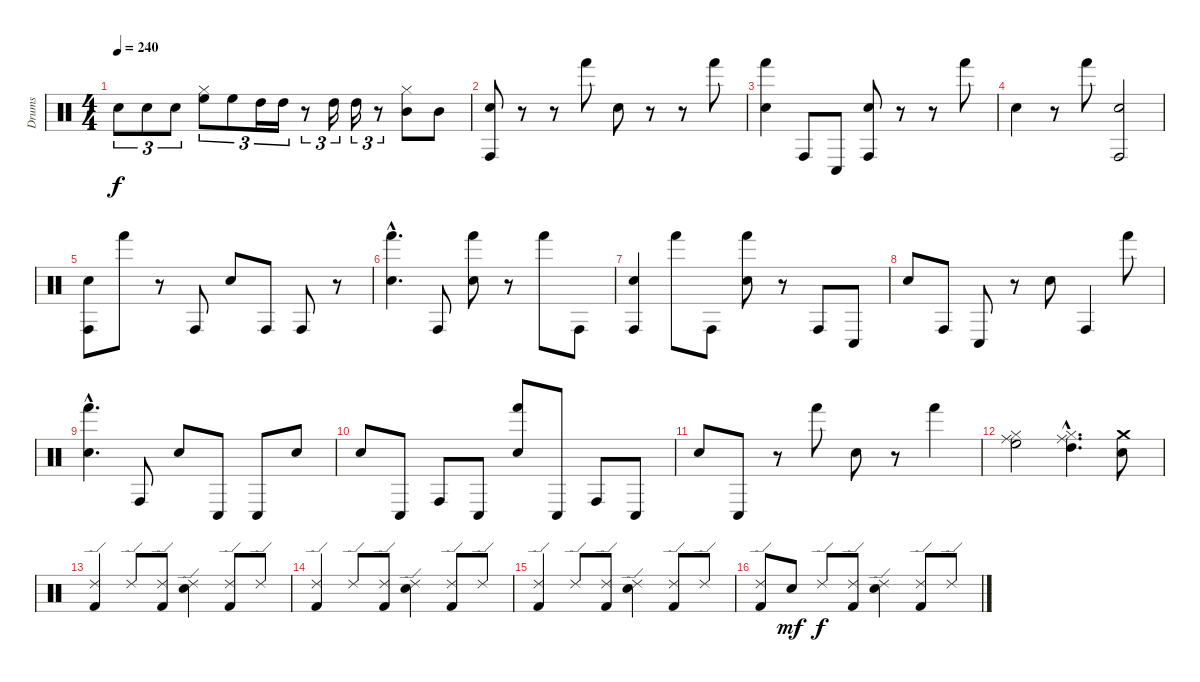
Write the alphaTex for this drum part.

\track ("Drums" "Drums") {instrument percussion}
\staff {score}
\articulation defaults
\ts (4 4)
\tempo 240
\clef neutral
\ks c "Snare (hit) 2".8{tu (3 2) dy f} "Snare (hit) 2".8{tu (3 2)} "Snare (hit) 2".8{tu (3 2)}
("Hi-Hat (closed)" "High Floor Tom (hit)").8{tu (3 2)} "High Floor Tom (hit)".8{tu (3 2)} "High Tom (hit)".16{tu (3 2)} "High Tom (hit)".16{tu (3 2)} r.8{tu (3 2)} "High Tom (hit)".16{tu (3 2)} "High Tom (hit)".16{tu (3 2)} r.8{tu (3 2)} ("Hi-Hat (closed)" "Mid Tom (hit)").8 "Mid Tom (hit)".8 |
("Hand Clap (hit)" "Conga high (hit)").8 r.8 r.8 "Hand (hit)".8 "Hand Clap (hit)".8 r.8 r.8 "Hand (hit)".8 |
("Hand Clap (hit)" "Hand (hit)").4 "Conga high (hit)".8 "Conga low (hit)".8 ("Hand Clap (hit)" "Conga high (hit)").8 r.8 r.8 "Hand (hit)".8 |
"Hand Clap (hit)".4 r.8 "Hand (hit)".8 ("Hand Clap (hit)" "Conga high (hit)").2 |
("Hand Clap (hit)" "Conga high (hit)").8 "Hand (hit)".8 r.8 "Conga high (hit)".8 "Hand Clap (hit)".8 "Conga high (hit)".8 "Conga high (hit)".8 r.8 |
("Hand Clap (hit)"{hac} "Hand (hit)"{hac}).4{d} "Conga high (hit)".8 ("Hand Clap (hit)" "Hand (hit)").8 r.8 "Hand (hit)".8 "Conga high (hit)".8 |
("Hand Clap (hit)" "Conga high (hit)").4 "Hand (hit)".8 "Conga high (hit)".8 ("Hand Clap (hit)" "Hand (hit)").8 r.8 "Conga high (hit)".8 "Conga low (hit)".8 |
"Hand Clap (hit)".8 "Conga high (hit)".8 "Conga low (hit)".8 r.8 "Hand Clap (hit)".8 "Conga high (hit)".4 "Hand (hit)".8 |
("Hand Clap (hit)"{hac} "Hand (hit)"{hac}).4{d} "Conga high (hit)".8 "Hand Clap (hit)".8 "Conga low (hit)".8 "Conga low (hit)".8 "Hand Clap (hit)".8 |
"Hand Clap (hit)".8 "Conga low (hit)".8 "Conga high (hit)".8 "Conga low (hit)".8 ("Hand Clap (hit)" "Hand (hit)").8 "Conga low (hit)".8 "Conga high (hit)".8 "Conga low (hit)".8 |
"Hand Clap (hit)".8 "Conga low (hit)".8 r.8 "Hand (hit)".8 "Hand Clap (hit)".8 r.8 "Hand (hit)".4 |
("Ride (middle)" "Hi-Hat (closed)" "High Floor Tom (hit)").2 ("Ride (middle)"{hac} "Hi-Hat (closed)"{hac} "High Tom (hit)"{hac}).4{d} ("Crash medium (hit)" "Electric Snare (hit)").8 |
("Ride (edge) 2" "Kick (hit) 2").4 "Ride (edge) 2".8 ("Ride (edge) 2" "Kick (hit) 2").8 ("Ride (edge) 2" "Electric Snare (hit)").4 ("Ride (edge) 2" "Kick (hit) 2").8 "Ride (edge) 2".8 |
("Ride (edge) 2" "Kick (hit) 2").4 "Ride (edge) 2".8 ("Ride (edge) 2" "Kick (hit) 2").8 ("Ride (edge) 2" "Electric Snare (hit)").4 ("Ride (edge) 2" "Kick (hit) 2").8 "Ride (edge) 2".8 |
("Ride (edge) 2" "Kick (hit) 2").4 "Ride (edge) 2".8 ("Ride (edge) 2" "Kick (hit) 2").8 ("Ride (edge) 2" "Electric Snare (hit)").4 ("Ride (edge) 2" "Kick (hit) 2").8 "Ride (edge) 2".8 |
("Ride (edge) 2" "Kick (hit) 2").8 "Electric Snare (hit)".8{dy mf} "Ride (edge) 2".8{dy f} ("Ride (edge) 2" "Kick (hit) 2").8 ("Ride (edge) 2" "Electric Snare (hit)").4 ("Ride (edge) 2" "Kick (hit) 2").8 "Ride (edge) 2".8
